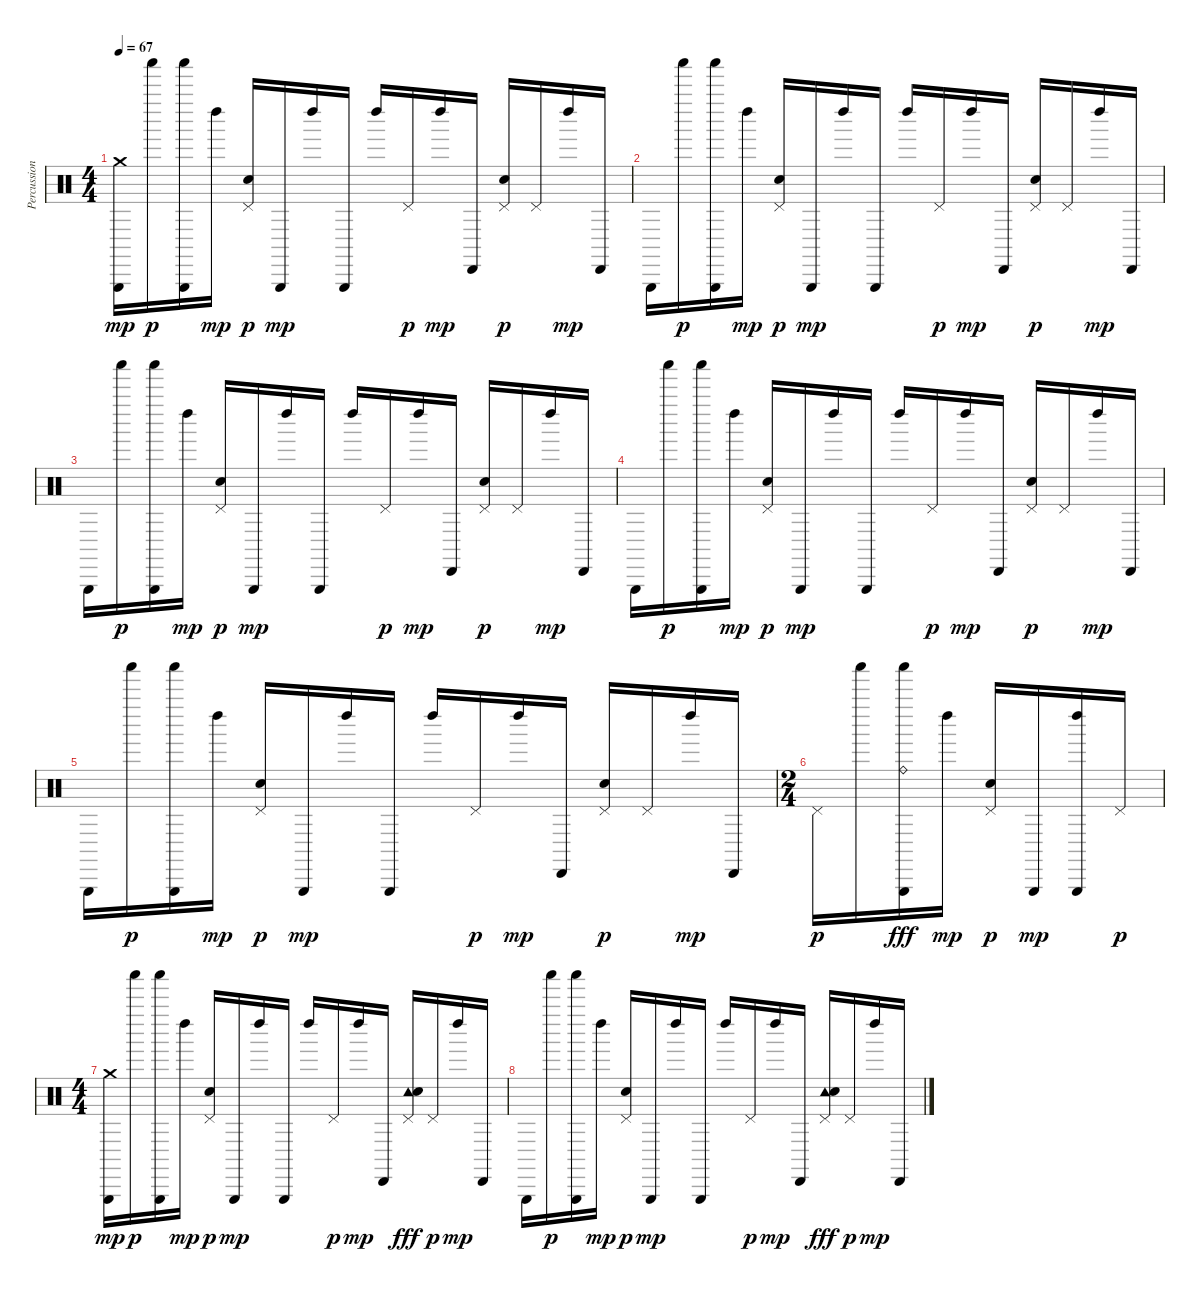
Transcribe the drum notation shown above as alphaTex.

\track ("Percussion" "Percussion") {instrument percussion}
\staff {score}
\articulation defaults
\ts (4 4)
\tempo 67
\clef neutral
\ks c
("Triangle (hit)" "Crash medium (hit)").16{dy mp} "Shaker (hit)".16{dy p} ("Triangle (hit)" "Shaker (hit)").16 "Left Maraca (hit)".16{dy mp} ("Pedal Hi-Hat (hit)" "Snare (hit) 2").16{dy p} "Triangle (hit)".16{dy mp} "Left Maraca (hit)".16 "Triangle (hit)".16 "Left Maraca (hit)".16 "Pedal Hi-Hat (hit)".16{dy p} "Left Maraca (hit)".16{dy mp} "Cabasa (hit)".16 ("Pedal Hi-Hat (hit)" "Snare (hit) 2").16{dy p} "Pedal Hi-Hat (hit)".16 "Left Maraca (hit)".16{dy mp} "Cabasa (hit)".16 |
"Triangle (hit)".16 "Shaker (hit)".16{dy p} ("Triangle (hit)" "Shaker (hit)").16 "Left Maraca (hit)".16{dy mp} ("Pedal Hi-Hat (hit)" "Snare (hit) 2").16{dy p} "Triangle (hit)".16{dy mp} "Left Maraca (hit)".16 "Triangle (hit)".16 "Left Maraca (hit)".16 "Pedal Hi-Hat (hit)".16{dy p} "Left Maraca (hit)".16{dy mp} "Cabasa (hit)".16 ("Pedal Hi-Hat (hit)" "Snare (hit) 2").16{dy p} "Pedal Hi-Hat (hit)".16 "Left Maraca (hit)".16{dy mp} "Cabasa (hit)".16 |
"Triangle (hit)".16 "Shaker (hit)".16{dy p} ("Triangle (hit)" "Shaker (hit)").16 "Left Maraca (hit)".16{dy mp} ("Pedal Hi-Hat (hit)" "Snare (hit) 2").16{dy p} "Triangle (hit)".16{dy mp} "Left Maraca (hit)".16 "Triangle (hit)".16 "Left Maraca (hit)".16 "Pedal Hi-Hat (hit)".16{dy p} "Left Maraca (hit)".16{dy mp} "Cabasa (hit)".16 ("Pedal Hi-Hat (hit)" "Snare (hit) 2").16{dy p} "Pedal Hi-Hat (hit)".16 "Left Maraca (hit)".16{dy mp} "Cabasa (hit)".16 |
"Triangle (hit)".16 "Shaker (hit)".16{dy p} ("Triangle (hit)" "Shaker (hit)").16 "Left Maraca (hit)".16{dy mp} ("Pedal Hi-Hat (hit)" "Snare (hit) 2").16{dy p} "Triangle (hit)".16{dy mp} "Left Maraca (hit)".16 "Triangle (hit)".16 "Left Maraca (hit)".16 "Pedal Hi-Hat (hit)".16{dy p} "Left Maraca (hit)".16{dy mp} "Cabasa (hit)".16 ("Pedal Hi-Hat (hit)" "Snare (hit) 2").16{dy p} "Pedal Hi-Hat (hit)".16 "Left Maraca (hit)".16{dy mp} "Cabasa (hit)".16 |
"Triangle (hit)".16 "Shaker (hit)".16{dy p} ("Triangle (hit)" "Shaker (hit)").16 "Left Maraca (hit)".16{dy mp} ("Pedal Hi-Hat (hit)" "Snare (hit) 2").16{dy p} "Triangle (hit)".16{dy mp} "Left Maraca (hit)".16 "Triangle (hit)".16 "Left Maraca (hit)".16 "Pedal Hi-Hat (hit)".16{dy p} "Left Maraca (hit)".16{dy mp} "Cabasa (hit)".16 ("Pedal Hi-Hat (hit)" "Snare (hit) 2").16{dy p} "Pedal Hi-Hat (hit)".16 "Left Maraca (hit)".16{dy mp} "Cabasa (hit)".16 |
\ts (2 4)
"Pedal Hi-Hat (hit)".16{dy p} "Shaker (hit)".16 ("Triangle (hit)" "Shaker (hit)" "Ride (bell)").16{dy fff} "Left Maraca (hit)".16{dy mp} ("Pedal Hi-Hat (hit)" "Snare (hit) 2").16{dy p} "Triangle (hit)".16{dy mp} ("Left Maraca (hit)" "Triangle (hit)").16 "Pedal Hi-Hat (hit)".16{dy p} |
\ts (4 4)
("Triangle (hit)" "Crash medium (hit)").16{dy mp} "Shaker (hit)".16{dy p} ("Triangle (hit)" "Shaker (hit)").16 "Left Maraca (hit)".16{dy mp} ("Pedal Hi-Hat (hit)" "Snare (hit) 2").16{dy p} "Triangle (hit)".16{dy mp} "Left Maraca (hit)".16 "Triangle (hit)".16 "Left Maraca (hit)".16 "Pedal Hi-Hat (hit)".16{dy p} "Left Maraca (hit)".16{dy mp} "Cabasa (hit)".16 ("Pedal Hi-Hat (hit)" "Tambourine (hit)" "Snare (hit) 2").16{dy fff} "Pedal Hi-Hat (hit)".16{dy p} "Left Maraca (hit)".16{dy mp} "Cabasa (hit)".16 |
"Triangle (hit)".16 "Shaker (hit)".16{dy p} ("Triangle (hit)" "Shaker (hit)").16 "Left Maraca (hit)".16{dy mp} ("Pedal Hi-Hat (hit)" "Snare (hit) 2").16{dy p} "Triangle (hit)".16{dy mp} "Left Maraca (hit)".16 "Triangle (hit)".16 "Left Maraca (hit)".16 "Pedal Hi-Hat (hit)".16{dy p} "Left Maraca (hit)".16{dy mp} "Cabasa (hit)".16 ("Pedal Hi-Hat (hit)" "Tambourine (hit)" "Snare (hit) 2").16{dy fff} "Pedal Hi-Hat (hit)".16{dy p} "Left Maraca (hit)".16{dy mp} "Cabasa (hit)".16
